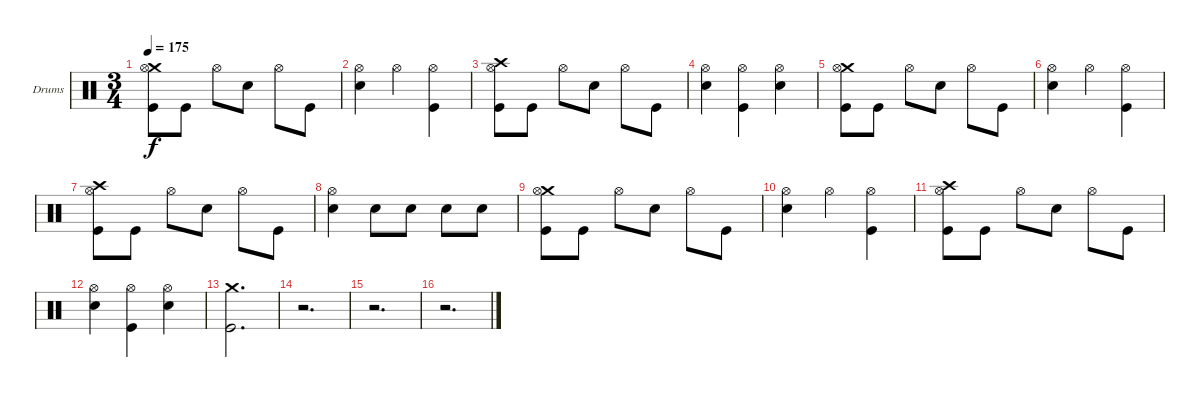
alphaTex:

\bracketExtendMode groupsimilarinstruments
\firstSystemTrackNameOrientation horizontal
\otherSystemsTrackNameOrientation horizontal
\track ("Drums" "Drums") {instrument percussion}
\staff {score}
\articulation defaults
\ts (3 4)
\tempo 175
\clef neutral
\ks c
("Crash medium (hit)" "Hi-Hat (open)" "Kick (hit)").8{dy f} "Kick (hit)".8 "Hi-Hat (open)".8 "Snare (hit) 2".8 "Hi-Hat (open)".8 "Kick (hit)".8 |
("Hi-Hat (open)" "Snare (hit) 2").4 "Hi-Hat (open)".4 ("Hi-Hat (open)" "Kick (hit)").4 |
("Crash high (hit)" "Hi-Hat (open)" "Kick (hit)").8 "Kick (hit)".8 "Hi-Hat (open)".8 "Snare (hit) 2".8 "Hi-Hat (open)".8 "Kick (hit)".8 |
("Hi-Hat (open)" "Snare (hit) 2").4 ("Hi-Hat (open)" "Kick (hit)").4 ("Hi-Hat (open)" "Snare (hit) 2").4 |
("Crash medium (hit)" "Hi-Hat (open)" "Kick (hit)").8 "Kick (hit)".8 "Hi-Hat (open)".8 "Snare (hit) 2".8 "Hi-Hat (open)".8 "Kick (hit)".8 |
("Hi-Hat (open)" "Snare (hit) 2").4 "Hi-Hat (open)".4 ("Hi-Hat (open)" "Kick (hit)").4 |
("Crash high (hit)" "Hi-Hat (open)" "Kick (hit)").8 "Kick (hit)".8 "Hi-Hat (open)".8 "Snare (hit) 2".8 "Hi-Hat (open)".8 "Kick (hit)".8 |
("Hi-Hat (open)" "Snare (hit) 2").4 "Snare (hit) 2".8 "Snare (hit) 2".8 "Snare (hit) 2".8 "Snare (hit) 2".8 |
("Crash medium (hit)" "Hi-Hat (open)" "Kick (hit)").8 "Kick (hit)".8 "Hi-Hat (open)".8 "Snare (hit) 2".8 "Hi-Hat (open)".8 "Kick (hit)".8 |
("Hi-Hat (open)" "Snare (hit) 2").4 "Hi-Hat (open)".4 ("Hi-Hat (open)" "Kick (hit)").4 |
("Crash high (hit)" "Hi-Hat (open)" "Kick (hit)").8 "Kick (hit)".8 "Hi-Hat (open)".8 "Snare (hit) 2".8 "Hi-Hat (open)".8 "Kick (hit)".8 |
("Hi-Hat (open)" "Snare (hit) 2").4 ("Hi-Hat (open)" "Kick (hit)").4 ("Hi-Hat (open)" "Snare (hit) 2").4 |
("Crash medium (hit)" "Kick (hit)").2{d} |
r.2{d} |
r.2{d} |
r.2{d}
